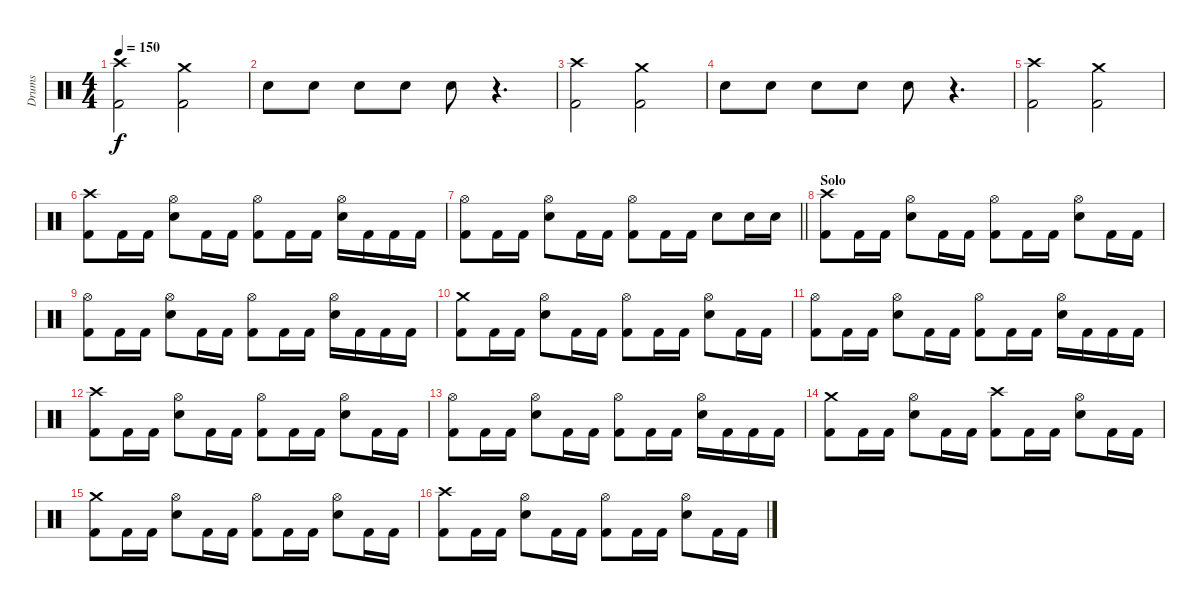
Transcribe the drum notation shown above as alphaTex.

\track ("Drums" "Drums") {instrument percussion}
\staff {score}
\articulation defaults
\ts (4 4)
\tempo 150
\clef neutral
\ks c
("Crash high (hit)" "Kick (hit) 2").2{dy f} ("Crash medium (hit)" "Kick (hit) 2").2 |
"Snare (hit) 2".8 "Snare (hit) 2".8 "Snare (hit) 2".8 "Snare (hit) 2".8 "Snare (hit) 2".8 r.4{d} |
("Crash high (hit)" "Kick (hit) 2").2 ("Crash medium (hit)" "Kick (hit) 2").2 |
"Snare (hit) 2".8 "Snare (hit) 2".8 "Snare (hit) 2".8 "Snare (hit) 2".8 "Snare (hit) 2".8 r.4{d} |
("Crash high (hit)" "Kick (hit) 2").2 ("Crash medium (hit)" "Kick (hit) 2").2 |
("Crash high (hit)" "Kick (hit) 2").8 "Kick (hit) 2".16 "Kick (hit) 2".16 ("Hi-Hat (open)" "Snare (hit) 2").8 "Kick (hit) 2".16 "Kick (hit) 2".16 ("Hi-Hat (open)" "Kick (hit) 2").8 "Kick (hit) 2".16 "Kick (hit) 2".16 ("Hi-Hat (open)" "Snare (hit) 2").16 "Kick (hit) 2".16 "Kick (hit) 2".16 "Kick (hit) 2".16 |
\barLineRight lightlight
("Hi-Hat (open)" "Kick (hit) 2").8 "Kick (hit) 2".16 "Kick (hit) 2".16 ("Hi-Hat (open)" "Snare (hit) 2").8 "Kick (hit) 2".16 "Kick (hit) 2".16 ("Hi-Hat (open)" "Kick (hit) 2").8 "Kick (hit) 2".16 "Kick (hit) 2".16 "Snare (hit) 2".8 "Snare (hit) 2".16 "Snare (hit) 2".16 |
\section ("" "Solo")
("Crash high (hit)" "Kick (hit) 2").8 "Kick (hit) 2".16 "Kick (hit) 2".16 ("Hi-Hat (open)" "Snare (hit) 2").8 "Kick (hit) 2".16 "Kick (hit) 2".16 ("Hi-Hat (open)" "Kick (hit) 2").8 "Kick (hit) 2".16 "Kick (hit) 2".16 ("Hi-Hat (open)" "Snare (hit) 2").8 "Kick (hit) 2".16 "Kick (hit) 2".16 |
("Hi-Hat (open)" "Kick (hit) 2").8 "Kick (hit) 2".16 "Kick (hit) 2".16 ("Hi-Hat (open)" "Snare (hit) 2").8 "Kick (hit) 2".16 "Kick (hit) 2".16 ("Hi-Hat (open)" "Kick (hit) 2").8 "Kick (hit) 2".16 "Kick (hit) 2".16 ("Hi-Hat (open)" "Snare (hit) 2").16 "Kick (hit) 2".16 "Kick (hit) 2".16 "Kick (hit) 2".16 |
("Crash medium (hit)" "Kick (hit) 2").8 "Kick (hit) 2".16 "Kick (hit) 2".16 ("Hi-Hat (open)" "Snare (hit) 2").8 "Kick (hit) 2".16 "Kick (hit) 2".16 ("Hi-Hat (open)" "Kick (hit) 2").8 "Kick (hit) 2".16 "Kick (hit) 2".16 ("Hi-Hat (open)" "Snare (hit) 2").8 "Kick (hit) 2".16 "Kick (hit) 2".16 |
("Hi-Hat (open)" "Kick (hit) 2").8 "Kick (hit) 2".16 "Kick (hit) 2".16 ("Hi-Hat (open)" "Snare (hit) 2").8 "Kick (hit) 2".16 "Kick (hit) 2".16 ("Hi-Hat (open)" "Kick (hit) 2").8 "Kick (hit) 2".16 "Kick (hit) 2".16 ("Hi-Hat (open)" "Snare (hit) 2").16 "Kick (hit) 2".16 "Kick (hit) 2".16 "Kick (hit) 2".16 |
("Crash high (hit)" "Kick (hit) 2").8 "Kick (hit) 2".16 "Kick (hit) 2".16 ("Hi-Hat (open)" "Snare (hit) 2").8 "Kick (hit) 2".16 "Kick (hit) 2".16 ("Hi-Hat (open)" "Kick (hit) 2").8 "Kick (hit) 2".16 "Kick (hit) 2".16 ("Hi-Hat (open)" "Snare (hit) 2").8 "Kick (hit) 2".16 "Kick (hit) 2".16 |
("Hi-Hat (open)" "Kick (hit) 2").8 "Kick (hit) 2".16 "Kick (hit) 2".16 ("Hi-Hat (open)" "Snare (hit) 2").8 "Kick (hit) 2".16 "Kick (hit) 2".16 ("Hi-Hat (open)" "Kick (hit) 2").8 "Kick (hit) 2".16 "Kick (hit) 2".16 ("Hi-Hat (open)" "Snare (hit) 2").16 "Kick (hit) 2".16 "Kick (hit) 2".16 "Kick (hit) 2".16 |
("Crash medium (hit)" "Kick (hit) 2").8 "Kick (hit) 2".16 "Kick (hit) 2".16 ("Hi-Hat (open)" "Snare (hit) 2").8 "Kick (hit) 2".16 "Kick (hit) 2".16 ("Crash high (hit)" "Kick (hit) 2").8 "Kick (hit) 2".16 "Kick (hit) 2".16 ("Hi-Hat (open)" "Snare (hit) 2").8 "Kick (hit) 2".16 "Kick (hit) 2".16 |
("Crash medium (hit)" "Kick (hit) 2").8 "Kick (hit) 2".16 "Kick (hit) 2".16 ("Hi-Hat (open)" "Snare (hit) 2").8 "Kick (hit) 2".16 "Kick (hit) 2".16 ("Hi-Hat (open)" "Kick (hit) 2").8 "Kick (hit) 2".16 "Kick (hit) 2".16 ("Hi-Hat (open)" "Snare (hit) 2").8 "Kick (hit) 2".16 "Kick (hit) 2".16 |
("Crash high (hit)" "Kick (hit) 2").8 "Kick (hit) 2".16 "Kick (hit) 2".16 ("Hi-Hat (open)" "Snare (hit) 2").8 "Kick (hit) 2".16 "Kick (hit) 2".16 ("Hi-Hat (open)" "Kick (hit) 2").8 "Kick (hit) 2".16 "Kick (hit) 2".16 ("Hi-Hat (open)" "Snare (hit) 2").8 "Kick (hit) 2".16 "Kick (hit) 2".16
